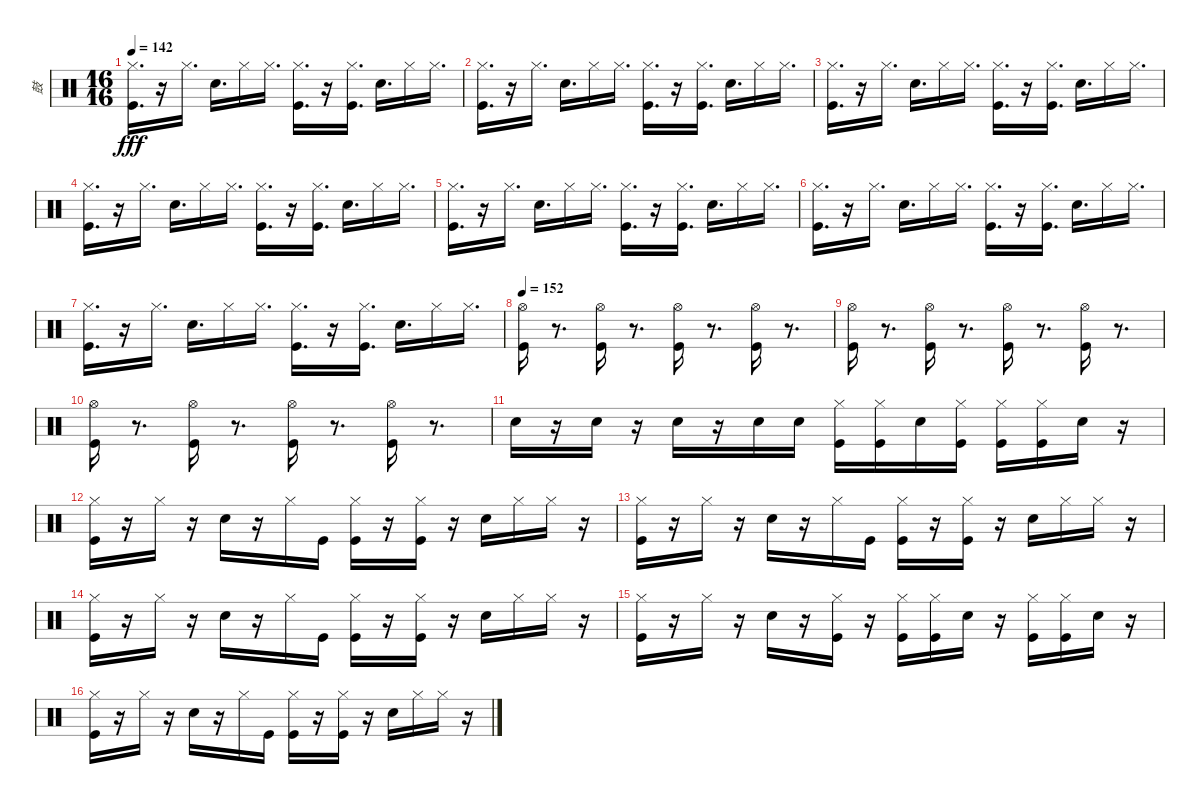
\track ("鼓" "鼓") {instrument percussion}
\staff {score}
\articulation defaults
\ts (16 16)
\tempo 142
\clef neutral
\ks c
("Hi-Hat (closed)" "Kick (hit)").16{d dy fff} r.16 "Hi-Hat (closed)".16{d} "Snare (hit) 2".16{d} "Hi-Hat (closed)".16 "Hi-Hat (closed)".16{d} ("Hi-Hat (closed)" "Kick (hit)").16{d} r.16 ("Hi-Hat (closed)" "Kick (hit)").16{d} "Snare (hit) 2".16{d} "Hi-Hat (closed)".16 "Hi-Hat (closed)".16{d} |
("Hi-Hat (closed)" "Kick (hit)").16{d} r.16 "Hi-Hat (closed)".16{d} "Snare (hit) 2".16{d} "Hi-Hat (closed)".16 "Hi-Hat (closed)".16{d} ("Hi-Hat (closed)" "Kick (hit)").16{d} r.16 ("Hi-Hat (closed)" "Kick (hit)").16{d} "Snare (hit) 2".16{d} "Hi-Hat (closed)".16 "Hi-Hat (closed)".16{d} |
("Hi-Hat (closed)" "Kick (hit)").16{d} r.16 "Hi-Hat (closed)".16{d} "Snare (hit) 2".16{d} "Hi-Hat (closed)".16 "Hi-Hat (closed)".16{d} ("Hi-Hat (closed)" "Kick (hit)").16{d} r.16 ("Hi-Hat (closed)" "Kick (hit)").16{d} "Snare (hit) 2".16{d} "Hi-Hat (closed)".16 "Hi-Hat (closed)".16{d} |
("Hi-Hat (closed)" "Kick (hit)").16{d} r.16 "Hi-Hat (closed)".16{d} "Snare (hit) 2".16{d} "Hi-Hat (closed)".16 "Hi-Hat (closed)".16{d} ("Hi-Hat (closed)" "Kick (hit)").16{d} r.16 ("Hi-Hat (closed)" "Kick (hit)").16{d} "Snare (hit) 2".16{d} "Hi-Hat (closed)".16 "Hi-Hat (closed)".16{d} |
("Hi-Hat (closed)" "Kick (hit)").16{d} r.16 "Hi-Hat (closed)".16{d} "Snare (hit) 2".16{d} "Hi-Hat (closed)".16 "Hi-Hat (closed)".16{d} ("Hi-Hat (closed)" "Kick (hit)").16{d} r.16 ("Hi-Hat (closed)" "Kick (hit)").16{d} "Snare (hit) 2".16{d} "Hi-Hat (closed)".16 "Hi-Hat (closed)".16{d} |
("Hi-Hat (closed)" "Kick (hit)").16{d} r.16 "Hi-Hat (closed)".16{d} "Snare (hit) 2".16{d} "Hi-Hat (closed)".16 "Hi-Hat (closed)".16{d} ("Hi-Hat (closed)" "Kick (hit)").16{d} r.16 ("Hi-Hat (closed)" "Kick (hit)").16{d} "Snare (hit) 2".16{d} "Hi-Hat (closed)".16 "Hi-Hat (closed)".16{d} |
("Hi-Hat (closed)" "Kick (hit)").16{d} r.16 "Hi-Hat (closed)".16{d} "Snare (hit) 2".16{d} "Hi-Hat (closed)".16 "Hi-Hat (closed)".16{d} ("Hi-Hat (closed)" "Kick (hit)").16{d} r.16 ("Hi-Hat (closed)" "Kick (hit)").16{d} "Snare (hit) 2".16{d} "Hi-Hat (closed)".16 "Hi-Hat (closed)".16{d} |
\tempo 152
("Kick (hit)" "Hi-Hat (open)").16 r.8{d} ("Kick (hit)" "Hi-Hat (open)").16 r.8{d} ("Kick (hit)" "Hi-Hat (open)").16 r.8{d} ("Kick (hit)" "Hi-Hat (open)").16 r.8{d} |
("Kick (hit)" "Hi-Hat (open)").16 r.8{d} ("Kick (hit)" "Hi-Hat (open)").16 r.8{d} ("Kick (hit)" "Hi-Hat (open)").16 r.8{d} ("Kick (hit)" "Hi-Hat (open)").16 r.8{d} |
("Kick (hit)" "Hi-Hat (open)").16 r.8{d} ("Kick (hit)" "Hi-Hat (open)").16 r.8{d} ("Kick (hit)" "Hi-Hat (open)").16 r.8{d} ("Kick (hit)" "Hi-Hat (open)").16 r.8{d} |
"Snare (hit) 2".16 r.16 "Snare (hit) 2".16 r.16 "Snare (hit) 2".16 r.16 "Snare (hit) 2".16 "Snare (hit) 2".16 ("Kick (hit)" "Hi-Hat (closed)").16 ("Kick (hit)" "Hi-Hat (closed)").16 "Snare (hit) 2".16 ("Kick (hit)" "Hi-Hat (closed)").16 ("Kick (hit)" "Hi-Hat (closed)").16 ("Kick (hit)" "Hi-Hat (closed)").16 "Snare (hit) 2".16 r.16 |
("Kick (hit)" "Hi-Hat (closed)").16 r.16 "Hi-Hat (closed)".16 r.16 "Snare (hit) 2".16 r.16 "Hi-Hat (closed)".16 "Kick (hit)".16 ("Hi-Hat (closed)" "Kick (hit)").16 r.16 ("Hi-Hat (closed)" "Kick (hit)").16 r.16 "Snare (hit) 2".16 "Hi-Hat (closed)".16 "Hi-Hat (closed)".16 r.16 |
("Kick (hit)" "Hi-Hat (closed)").16 r.16 "Hi-Hat (closed)".16 r.16 "Snare (hit) 2".16 r.16 "Hi-Hat (closed)".16 "Kick (hit)".16 ("Hi-Hat (closed)" "Kick (hit)").16 r.16 ("Hi-Hat (closed)" "Kick (hit)").16 r.16 "Snare (hit) 2".16 "Hi-Hat (closed)".16 "Hi-Hat (closed)".16 r.16 |
("Kick (hit)" "Hi-Hat (closed)").16 r.16 "Hi-Hat (closed)".16 r.16 "Snare (hit) 2".16 r.16 "Hi-Hat (closed)".16 "Kick (hit)".16 ("Hi-Hat (closed)" "Kick (hit)").16 r.16 ("Hi-Hat (closed)" "Kick (hit)").16 r.16 "Snare (hit) 2".16 "Hi-Hat (closed)".16 "Hi-Hat (closed)".16 r.16 |
("Kick (hit)" "Hi-Hat (closed)").16 r.16 "Hi-Hat (closed)".16 r.16 "Snare (hit) 2".16 r.16 ("Hi-Hat (closed)" "Kick (hit)").16 r.16 ("Hi-Hat (closed)" "Kick (hit)").16 ("Hi-Hat (closed)" "Kick (hit)").16 "Snare (hit) 2".16 r.16 ("Hi-Hat (closed)" "Kick (hit)").16 ("Hi-Hat (closed)" "Kick (hit)").16 "Snare (hit) 2".16 r.16 |
("Kick (hit)" "Hi-Hat (closed)").16 r.16 "Hi-Hat (closed)".16 r.16 "Snare (hit) 2".16 r.16 "Hi-Hat (closed)".16 "Kick (hit)".16 ("Hi-Hat (closed)" "Kick (hit)").16 r.16 ("Hi-Hat (closed)" "Kick (hit)").16 r.16 "Snare (hit) 2".16 "Hi-Hat (closed)".16 "Hi-Hat (closed)".16 r.16
